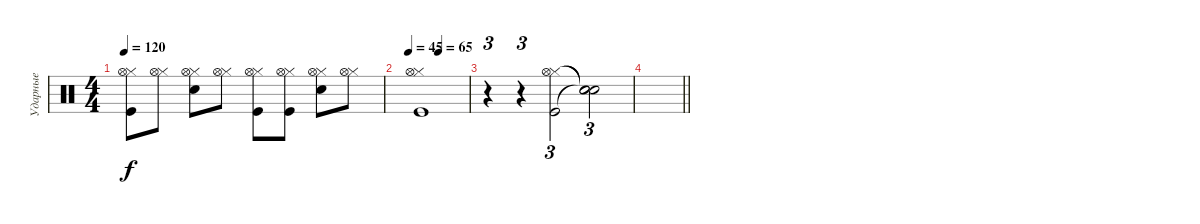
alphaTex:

\track ("Ударные" "Ударные") {instrument percussion}
\staff {score}
\articulation defaults
\ts (4 4)
\tempo 120
\clef neutral
\ks c
("Hi-Hat (closed)" "Kick (hit)" "Hi-Hat (open)").8{dy f} ("Hi-Hat (closed)" "Hi-Hat (open)").8 ("Hi-Hat (closed)" "Snare (hit) 2" "Hi-Hat (open)").8 ("Hi-Hat (closed)" "Hi-Hat (open)").8 ("Hi-Hat (closed)" "Kick (hit)" "Hi-Hat (open)").8 ("Hi-Hat (closed)" "Kick (hit)" "Hi-Hat (open)").8 ("Hi-Hat (closed)" "Snare (hit) 2" "Hi-Hat (open)").8 ("Hi-Hat (closed)" "Hi-Hat (open)").8 |
\tempo 45
\tempo (65 0.5)
("Hi-Hat (closed)" "Kick (hit)" "Hi-Hat (open)").1 |
r.4{tu (3 2)} r.4{tu (3 2)} ("Hi-Hat (closed)" "Kick (hit)" "Hi-Hat (open)").2{tu (3 2)} ("Snare (hit)"{t} "Snare (hit)"{t} "Snare (hit)"{t}).2{tu (3 2)} |
\barLineRight lightlight
